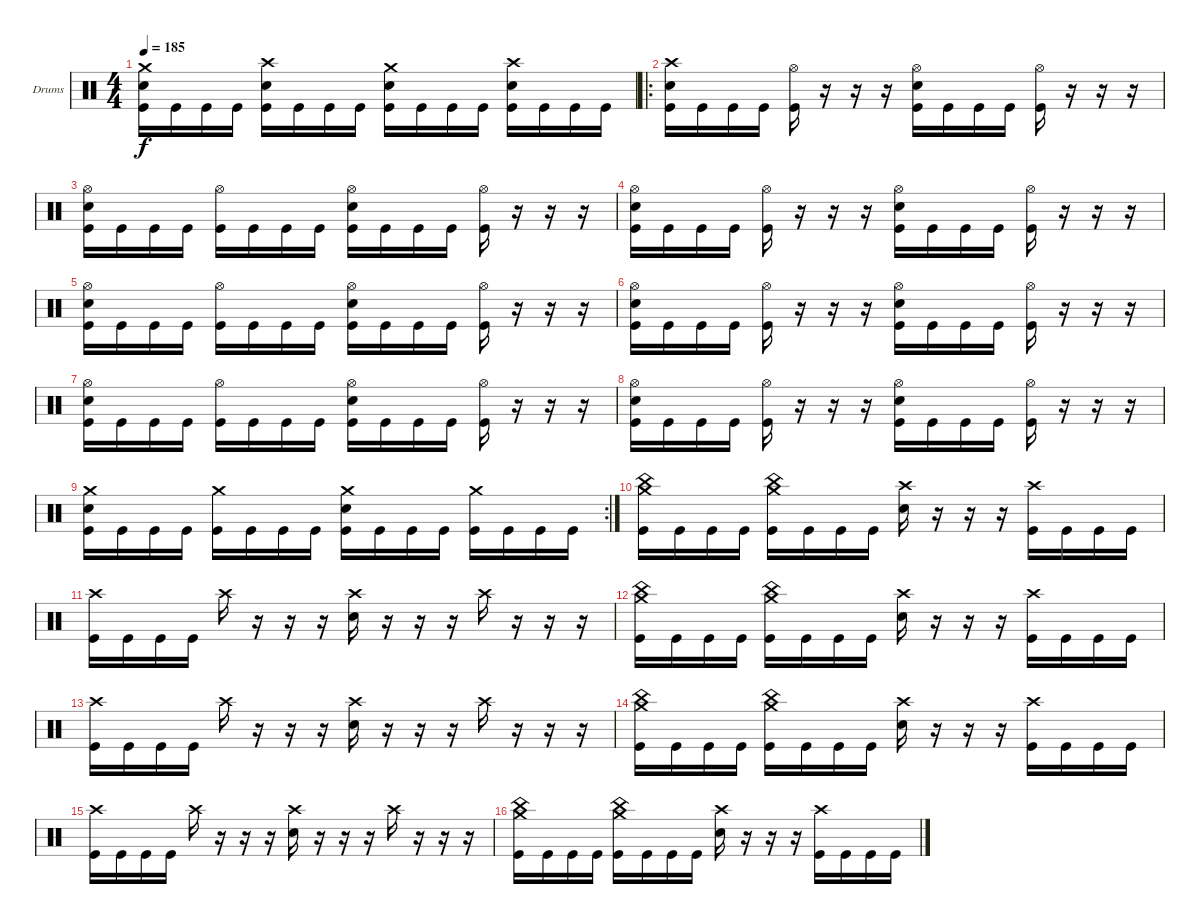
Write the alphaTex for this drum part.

\bracketExtendMode groupsimilarinstruments
\firstSystemTrackNameOrientation horizontal
\otherSystemsTrackNameOrientation horizontal
\track ("Drumkit" "Drums") {instrument percussion}
\staff {score}
\articulation defaults
\ts (4 4)
\tempo 185
\clef neutral
\ks c
("Crash medium (hit)" "Snare (hit) 2" "Kick (hit)").16{dy f} "Kick (hit)".16 "Kick (hit)".16 "Kick (hit)".16 ("Crash high (hit)" "Snare (hit) 2" "Kick (hit)").16 "Kick (hit)".16 "Kick (hit)".16 "Kick (hit)".16 ("Crash medium (hit)" "Snare (hit) 2" "Kick (hit)").16 "Kick (hit)".16 "Kick (hit)".16 "Kick (hit)".16 ("Crash high (hit)" "Snare (hit) 2" "Kick (hit)").16 "Kick (hit)".16 "Kick (hit)".16 "Kick (hit)".16 |
\ro
("Crash high (hit)" "Snare (hit) 2" "Kick (hit)").16 "Kick (hit)".16 "Kick (hit)".16 "Kick (hit)".16 ("Hi-Hat (open)" "Kick (hit)").16 r.16 r.16 r.16 ("Hi-Hat (open)" "Snare (hit) 2" "Kick (hit)").16 "Kick (hit)".16 "Kick (hit)".16 "Kick (hit)".16 ("Hi-Hat (open)" "Kick (hit)").16 r.16 r.16 r.16 |
("Hi-Hat (open)" "Snare (hit) 2" "Kick (hit)").16 "Kick (hit)".16 "Kick (hit)".16 "Kick (hit)".16 ("Hi-Hat (open)" "Kick (hit)").16 "Kick (hit)".16 "Kick (hit)".16 "Kick (hit)".16 ("Hi-Hat (open)" "Snare (hit) 2" "Kick (hit)").16 "Kick (hit)".16 "Kick (hit)".16 "Kick (hit)".16 ("Hi-Hat (open)" "Kick (hit)").16 r.16 r.16 r.16 |
("Hi-Hat (open)" "Snare (hit) 2" "Kick (hit)").16 "Kick (hit)".16 "Kick (hit)".16 "Kick (hit)".16 ("Hi-Hat (open)" "Kick (hit)").16 r.16 r.16 r.16 ("Hi-Hat (open)" "Snare (hit) 2" "Kick (hit)").16 "Kick (hit)".16 "Kick (hit)".16 "Kick (hit)".16 ("Hi-Hat (open)" "Kick (hit)").16 r.16 r.16 r.16 |
("Hi-Hat (open)" "Snare (hit) 2" "Kick (hit)").16 "Kick (hit)".16 "Kick (hit)".16 "Kick (hit)".16 ("Hi-Hat (open)" "Kick (hit)").16 "Kick (hit)".16 "Kick (hit)".16 "Kick (hit)".16 ("Hi-Hat (open)" "Snare (hit) 2" "Kick (hit)").16 "Kick (hit)".16 "Kick (hit)".16 "Kick (hit)".16 ("Hi-Hat (open)" "Kick (hit)").16 r.16 r.16 r.16 |
("Hi-Hat (open)" "Snare (hit) 2" "Kick (hit)").16 "Kick (hit)".16 "Kick (hit)".16 "Kick (hit)".16 ("Hi-Hat (open)" "Kick (hit)").16 r.16 r.16 r.16 ("Hi-Hat (open)" "Snare (hit) 2" "Kick (hit)").16 "Kick (hit)".16 "Kick (hit)".16 "Kick (hit)".16 ("Hi-Hat (open)" "Kick (hit)").16 r.16 r.16 r.16 |
("Hi-Hat (open)" "Snare (hit) 2" "Kick (hit)").16 "Kick (hit)".16 "Kick (hit)".16 "Kick (hit)".16 ("Hi-Hat (open)" "Kick (hit)").16 "Kick (hit)".16 "Kick (hit)".16 "Kick (hit)".16 ("Hi-Hat (open)" "Snare (hit) 2" "Kick (hit)").16 "Kick (hit)".16 "Kick (hit)".16 "Kick (hit)".16 ("Hi-Hat (open)" "Kick (hit)").16 r.16 r.16 r.16 |
("Hi-Hat (open)" "Snare (hit) 2" "Kick (hit)").16 "Kick (hit)".16 "Kick (hit)".16 "Kick (hit)".16 ("Hi-Hat (open)" "Kick (hit)").16 r.16 r.16 r.16 ("Hi-Hat (open)" "Snare (hit) 2" "Kick (hit)").16 "Kick (hit)".16 "Kick (hit)".16 "Kick (hit)".16 ("Hi-Hat (open)" "Kick (hit)").16 r.16 r.16 r.16 |
\rc 2
("Crash medium (hit)" "Snare (hit) 2" "Kick (hit)").16 "Kick (hit)".16 "Kick (hit)".16 "Kick (hit)".16 ("Crash medium (hit)" "Kick (hit)").16 "Kick (hit)".16 "Kick (hit)".16 "Kick (hit)".16 ("Crash medium (hit)" "Snare (hit) 2" "Kick (hit)").16 "Kick (hit)".16 "Kick (hit)".16 "Kick (hit)".16 ("Crash medium (hit)" "Kick (hit)").16 "Kick (hit)".16 "Kick (hit)".16 "Kick (hit)".16 |
("Crash medium (hit)" "China (hit)" "Kick (hit)").16 "Kick (hit)".16 "Kick (hit)".16 "Kick (hit)".16 ("Crash medium (hit)" "China (hit)" "Kick (hit)").16 "Kick (hit)".16 "Kick (hit)".16 "Kick (hit)".16 ("Crash high (hit)" "Snare (hit) 2").16 r.16 r.16 r.16 ("Crash high (hit)" "Kick (hit)").16 "Kick (hit)".16 "Kick (hit)".16 "Kick (hit)".16 |
("Crash high (hit)" "Kick (hit)").16 "Kick (hit)".16 "Kick (hit)".16 "Kick (hit)".16 "Crash high (hit)".16 r.16 r.16 r.16 ("Crash high (hit)" "Snare (hit) 2").16 r.16 r.16 r.16 "Crash high (hit)".16 r.16 r.16 r.16 |
("Crash medium (hit)" "China (hit)" "Kick (hit)").16 "Kick (hit)".16 "Kick (hit)".16 "Kick (hit)".16 ("Crash medium (hit)" "China (hit)" "Kick (hit)").16 "Kick (hit)".16 "Kick (hit)".16 "Kick (hit)".16 ("Crash high (hit)" "Snare (hit) 2").16 r.16 r.16 r.16 ("Crash high (hit)" "Kick (hit)").16 "Kick (hit)".16 "Kick (hit)".16 "Kick (hit)".16 |
("Crash high (hit)" "Kick (hit)").16 "Kick (hit)".16 "Kick (hit)".16 "Kick (hit)".16 "Crash high (hit)".16 r.16 r.16 r.16 ("Crash high (hit)" "Snare (hit) 2").16 r.16 r.16 r.16 "Crash high (hit)".16 r.16 r.16 r.16 |
("Crash medium (hit)" "China (hit)" "Kick (hit)").16 "Kick (hit)".16 "Kick (hit)".16 "Kick (hit)".16 ("Crash medium (hit)" "China (hit)" "Kick (hit)").16 "Kick (hit)".16 "Kick (hit)".16 "Kick (hit)".16 ("Crash high (hit)" "Snare (hit) 2").16 r.16 r.16 r.16 ("Crash high (hit)" "Kick (hit)").16 "Kick (hit)".16 "Kick (hit)".16 "Kick (hit)".16 |
("Crash high (hit)" "Kick (hit)").16 "Kick (hit)".16 "Kick (hit)".16 "Kick (hit)".16 "Crash high (hit)".16 r.16 r.16 r.16 ("Crash high (hit)" "Snare (hit) 2").16 r.16 r.16 r.16 "Crash high (hit)".16 r.16 r.16 r.16 |
("Crash medium (hit)" "China (hit)" "Kick (hit)").16 "Kick (hit)".16 "Kick (hit)".16 "Kick (hit)".16 ("Crash medium (hit)" "China (hit)" "Kick (hit)").16 "Kick (hit)".16 "Kick (hit)".16 "Kick (hit)".16 ("Crash high (hit)" "Snare (hit) 2").16 r.16 r.16 r.16 ("Crash high (hit)" "Kick (hit)").16 "Kick (hit)".16 "Kick (hit)".16 "Kick (hit)".16
